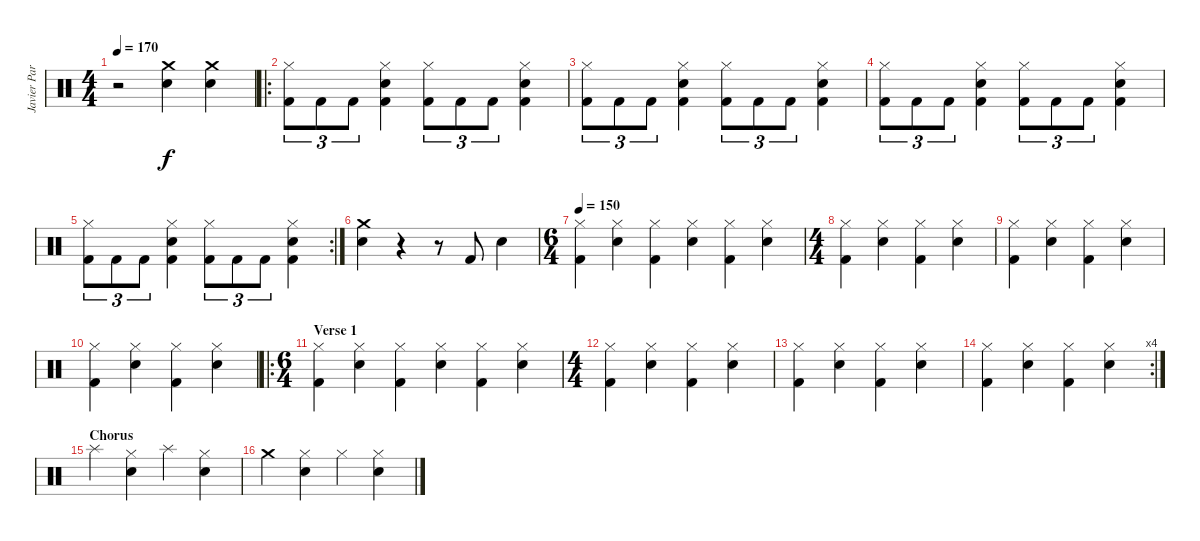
\track ("Javier Partida" "Javier Par") {instrument percussion}
\staff {score}
\articulation defaults
\ts (4 4)
\tempo 170
\clef neutral
\ks c
r.2{dy f} ("Crash medium (hit)" "Snare (hit) 2").4 ("Crash medium (hit)" "Snare (hit) 2").4 |
\ro
("Kick (hit) 2" "Hi-Hat (closed)").8{tu (3 2)} "Kick (hit) 2".8{tu (3 2)} "Kick (hit) 2".8{tu (3 2)} ("Kick (hit) 2" "Snare (hit) 2" "Hi-Hat (closed)").4 ("Kick (hit) 2" "Hi-Hat (closed)").8{tu (3 2)} "Kick (hit) 2".8{tu (3 2)} "Kick (hit) 2".8{tu (3 2)} ("Kick (hit) 2" "Snare (hit) 2" "Hi-Hat (closed)").4 |
("Kick (hit) 2" "Hi-Hat (closed)").8{tu (3 2)} "Kick (hit) 2".8{tu (3 2)} "Kick (hit) 2".8{tu (3 2)} ("Kick (hit) 2" "Snare (hit) 2" "Hi-Hat (closed)").4 ("Kick (hit) 2" "Hi-Hat (closed)").8{tu (3 2)} "Kick (hit) 2".8{tu (3 2)} "Kick (hit) 2".8{tu (3 2)} ("Kick (hit) 2" "Snare (hit) 2" "Hi-Hat (closed)").4 |
("Kick (hit) 2" "Hi-Hat (closed)").8{tu (3 2)} "Kick (hit) 2".8{tu (3 2)} "Kick (hit) 2".8{tu (3 2)} ("Kick (hit) 2" "Snare (hit) 2" "Hi-Hat (closed)").4 ("Kick (hit) 2" "Hi-Hat (closed)").8{tu (3 2)} "Kick (hit) 2".8{tu (3 2)} "Kick (hit) 2".8{tu (3 2)} ("Kick (hit) 2" "Snare (hit) 2" "Hi-Hat (closed)").4 |
\rc 2
("Kick (hit) 2" "Hi-Hat (closed)").8{tu (3 2)} "Kick (hit) 2".8{tu (3 2)} "Kick (hit) 2".8{tu (3 2)} ("Kick (hit) 2" "Snare (hit) 2" "Hi-Hat (closed)").4 ("Kick (hit) 2" "Hi-Hat (closed)").8{tu (3 2)} "Kick (hit) 2".8{tu (3 2)} "Kick (hit) 2".8{tu (3 2)} ("Kick (hit) 2" "Snare (hit) 2" "Hi-Hat (closed)").4 |
("Crash medium (hit)" "Snare (hit) 2").4 r.4 r.8 "Kick (hit) 2".8 "Snare (hit) 2".4 |
\ts (6 4)
\tempo 150
("Hi-Hat (closed)" "Kick (hit) 2").4 ("Snare (hit) 2" "Hi-Hat (closed)").4 ("Hi-Hat (closed)" "Kick (hit) 2").4 ("Snare (hit) 2" "Hi-Hat (closed)").4 ("Hi-Hat (closed)" "Kick (hit) 2").4 ("Snare (hit) 2" "Hi-Hat (closed)").4 |
\ts (4 4)
("Hi-Hat (closed)" "Kick (hit) 2").4 ("Snare (hit) 2" "Hi-Hat (closed)").4 ("Hi-Hat (closed)" "Kick (hit) 2").4 ("Snare (hit) 2" "Hi-Hat (closed)").4 |
("Hi-Hat (closed)" "Kick (hit) 2").4 ("Snare (hit) 2" "Hi-Hat (closed)").4 ("Hi-Hat (closed)" "Kick (hit) 2").4 ("Snare (hit) 2" "Hi-Hat (closed)").4 |
("Hi-Hat (closed)" "Kick (hit) 2").4 ("Snare (hit) 2" "Hi-Hat (closed)").4 ("Hi-Hat (closed)" "Kick (hit) 2").4 ("Snare (hit) 2" "Hi-Hat (closed)").4 |
\ro
\ts (6 4)
\section ("" "Verse 1")
("Hi-Hat (closed)" "Kick (hit) 2").4 ("Snare (hit) 2" "Hi-Hat (closed)").4 ("Hi-Hat (closed)" "Kick (hit) 2").4 ("Snare (hit) 2" "Hi-Hat (closed)").4 ("Hi-Hat (closed)" "Kick (hit) 2").4 ("Snare (hit) 2" "Hi-Hat (closed)").4 |
\ts (4 4)
("Hi-Hat (closed)" "Kick (hit) 2").4 ("Snare (hit) 2" "Hi-Hat (closed)").4 ("Hi-Hat (closed)" "Kick (hit) 2").4 ("Snare (hit) 2" "Hi-Hat (closed)").4 |
("Hi-Hat (closed)" "Kick (hit) 2").4 ("Snare (hit) 2" "Hi-Hat (closed)").4 ("Hi-Hat (closed)" "Kick (hit) 2").4 ("Snare (hit) 2" "Hi-Hat (closed)").4 |
\rc 4
("Hi-Hat (closed)" "Kick (hit) 2").4 ("Snare (hit) 2" "Hi-Hat (closed)").4 ("Hi-Hat (closed)" "Kick (hit) 2").4 ("Snare (hit) 2" "Hi-Hat (closed)").4 |
\section ("" "Chorus")
"Splash (hit)".4 ("Snare (hit) 2" "Hi-Hat (closed)").4 "Splash (hit)".4 ("Snare (hit) 2" "Hi-Hat (closed)").4 |
"Crash medium (hit)".4 ("Snare (hit) 2" "Hi-Hat (closed)").4 "Hi-Hat (closed)".4 ("Snare (hit) 2" "Hi-Hat (closed)").4
